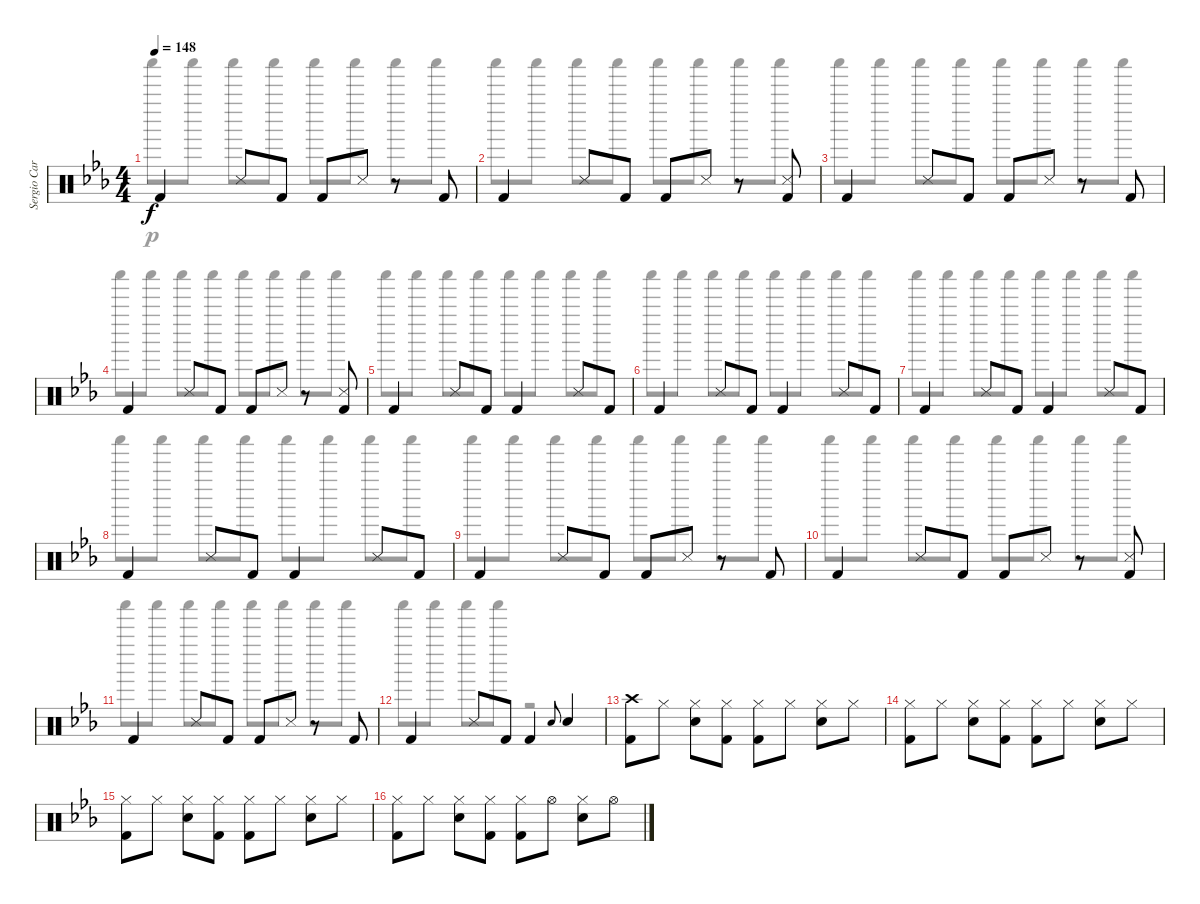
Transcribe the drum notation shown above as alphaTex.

\track ("Sergio Carnevale [Batteria]" "Sergio Car") {instrument percussion}
\staff {score}
\articulation defaults
\voice
\ts (4 4)
\tempo 148
\clef neutral
\ks cminor "Kick (hit) 2".4{dy f} "Snare (side stick) 3".8 "Kick (hit) 2".8 "Kick (hit) 2".8 "Snare (side stick) 3".8
r.8 "Kick (hit) 2".8 |
"Kick (hit) 2".4 "Snare (side stick) 3".8 "Kick (hit) 2".8 "Kick (hit) 2".8 "Snare (side stick) 3".8 r.8 ("Snare (side stick) 3" "Kick (hit) 2").8 |
"Kick (hit) 2".4 "Snare (side stick) 3".8 "Kick (hit) 2".8 "Kick (hit) 2".8 "Snare (side stick) 3".8 r.8 "Kick (hit) 2".8 |
"Kick (hit) 2".4 "Snare (side stick) 3".8 "Kick (hit) 2".8 "Kick (hit) 2".8 "Snare (side stick) 3".8 r.8 ("Snare (side stick) 3" "Kick (hit) 2").8 |
"Kick (hit) 2".4 "Snare (side stick) 3".8 "Kick (hit) 2".8 "Kick (hit) 2".4 "Snare (side stick) 3".8 "Kick (hit) 2".8 |
"Kick (hit) 2".4 "Snare (side stick) 3".8 "Kick (hit) 2".8 "Kick (hit) 2".4 "Snare (side stick) 3".8 "Kick (hit) 2".8 |
"Kick (hit) 2".4 "Snare (side stick) 3".8 "Kick (hit) 2".8 "Kick (hit) 2".4 "Snare (side stick) 3".8 "Kick (hit) 2".8 |
"Kick (hit) 2".4 "Snare (side stick) 3".8 "Kick (hit) 2".8 "Kick (hit) 2".4 "Snare (side stick) 3".8 "Kick (hit) 2".8 |
"Kick (hit) 2".4 "Snare (side stick) 3".8 "Kick (hit) 2".8 "Kick (hit) 2".8 "Snare (side stick) 3".8 r.8 "Kick (hit) 2".8 |
"Kick (hit) 2".4 "Snare (side stick) 3".8 "Kick (hit) 2".8 "Kick (hit) 2".8 "Snare (side stick) 3".8 r.8 ("Snare (side stick) 3" "Kick (hit) 2").8 |
"Kick (hit) 2".4 "Snare (side stick) 3".8 "Kick (hit) 2".8 "Kick (hit) 2".8 "Snare (side stick) 3".8 r.8 "Kick (hit) 2".8 |
"Kick (hit) 2".4 "Snare (side stick) 3".8 "Kick (hit) 2".8 "Kick (hit) 2".4 "Snare (hit) 2".8{gr onbeat} "Snare (hit) 2".4 |
("Crash high (hit)" "Kick (hit) 2").8 "Hi-Hat (closed)".8 ("Hi-Hat (closed)" "Snare (hit) 2").8 ("Hi-Hat (closed)" "Kick (hit) 2").8 ("Hi-Hat (closed)" "Kick (hit) 2").8 "Hi-Hat (closed)".8 ("Hi-Hat (closed)" "Snare (hit) 2").8 "Hi-Hat (closed)".8 |
("Hi-Hat (closed)" "Kick (hit) 2").8 "Hi-Hat (closed)".8 ("Hi-Hat (closed)" "Snare (hit) 2").8 ("Hi-Hat (closed)" "Kick (hit) 2").8 ("Hi-Hat (closed)" "Kick (hit) 2").8 "Hi-Hat (closed)".8 ("Hi-Hat (closed)" "Snare (hit) 2").8 "Hi-Hat (closed)".8 |
("Hi-Hat (closed)" "Kick (hit) 2").8 "Hi-Hat (closed)".8 ("Hi-Hat (closed)" "Snare (hit) 2").8 ("Hi-Hat (closed)" "Kick (hit) 2").8 ("Hi-Hat (closed)" "Kick (hit) 2").8 "Hi-Hat (closed)".8 ("Hi-Hat (closed)" "Snare (hit) 2").8 "Hi-Hat (closed)".8 |
("Hi-Hat (closed)" "Kick (hit) 2").8 "Hi-Hat (closed)".8 ("Hi-Hat (closed)" "Snare (hit) 2").8 ("Hi-Hat (closed)" "Kick (hit) 2").8 ("Hi-Hat (closed)" "Kick (hit) 2").8 "Hi-Hat (open)".8 ("Hi-Hat (closed)" "Snare (hit) 2").8 "Hi-Hat (open)".8
\voice
\clef neutral
\ottava regular
\simile none
\ks cminor "Shaker (hit)".8{dy p} "Shaker (hit)".8 "Shaker (hit)".8 "Shaker (hit)".8 "Shaker (hit)".8 "Shaker (hit)".8 "Shaker (hit)".8 "Shaker (hit)".8
|
"Shaker (hit)".8 "Shaker (hit)".8 "Shaker (hit)".8 "Shaker (hit)".8 "Shaker (hit)".8 "Shaker (hit)".8 "Shaker (hit)".8 "Shaker (hit)".8 |
"Shaker (hit)".8 "Shaker (hit)".8 "Shaker (hit)".8 "Shaker (hit)".8 "Shaker (hit)".8 "Shaker (hit)".8 "Shaker (hit)".8 "Shaker (hit)".8 |
"Shaker (hit)".8 "Shaker (hit)".8 "Shaker (hit)".8 "Shaker (hit)".8 "Shaker (hit)".8 "Shaker (hit)".8 "Shaker (hit)".8 "Shaker (hit)".8 |
"Shaker (hit)".8 "Shaker (hit)".8 "Shaker (hit)".8 "Shaker (hit)".8 "Shaker (hit)".8 "Shaker (hit)".8 "Shaker (hit)".8 "Shaker (hit)".8 |
"Shaker (hit)".8 "Shaker (hit)".8 "Shaker (hit)".8 "Shaker (hit)".8 "Shaker (hit)".8 "Shaker (hit)".8 "Shaker (hit)".8 "Shaker (hit)".8 |
"Shaker (hit)".8 "Shaker (hit)".8 "Shaker (hit)".8 "Shaker (hit)".8 "Shaker (hit)".8 "Shaker (hit)".8 "Shaker (hit)".8 "Shaker (hit)".8 |
"Shaker (hit)".8 "Shaker (hit)".8 "Shaker (hit)".8 "Shaker (hit)".8 "Shaker (hit)".8 "Shaker (hit)".8 "Shaker (hit)".8 "Shaker (hit)".8 |
"Shaker (hit)".8 "Shaker (hit)".8 "Shaker (hit)".8 "Shaker (hit)".8 "Shaker (hit)".8 "Shaker (hit)".8 "Shaker (hit)".8 "Shaker (hit)".8 |
"Shaker (hit)".8 "Shaker (hit)".8 "Shaker (hit)".8 "Shaker (hit)".8 "Shaker (hit)".8 "Shaker (hit)".8 "Shaker (hit)".8 "Shaker (hit)".8 |
"Shaker (hit)".8 "Shaker (hit)".8 "Shaker (hit)".8 "Shaker (hit)".8 "Shaker (hit)".8 "Shaker (hit)".8 "Shaker (hit)".8 "Shaker (hit)".8 |
"Shaker (hit)".8 "Shaker (hit)".8 "Shaker (hit)".8 "Shaker (hit)".8 r.2 |
|
|
|
